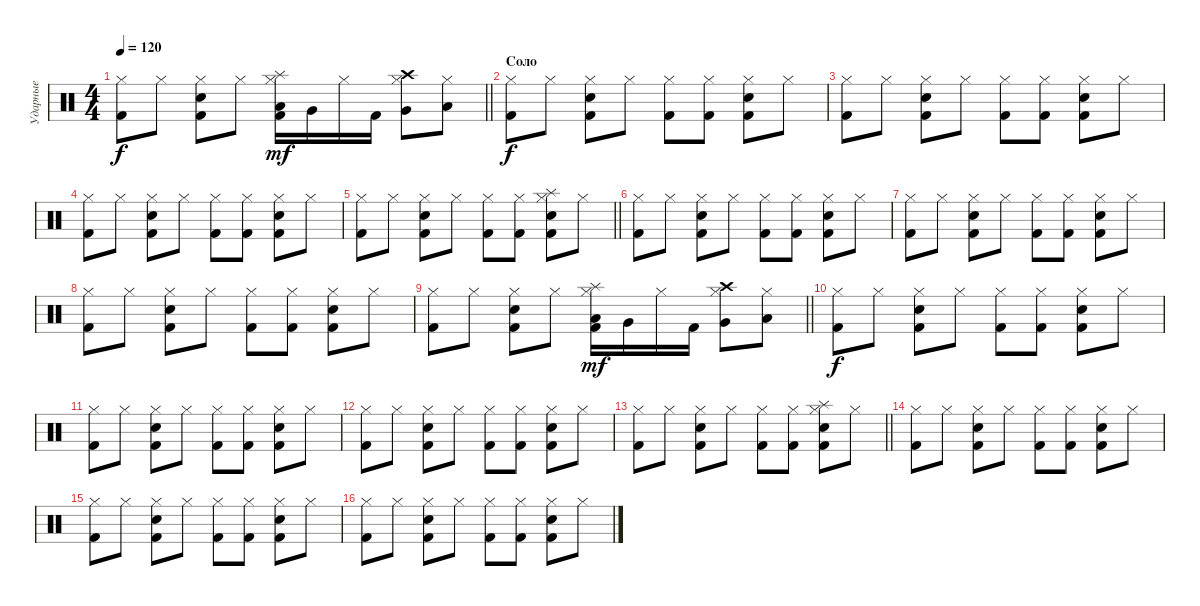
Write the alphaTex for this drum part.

\track ("Ударные" "Ударные") {instrument percussion}
\staff {score}
\articulation defaults
\ts (4 4)
\tempo 120
\clef neutral
\barLineRight lightlight
\ks c
("Hi-Hat (closed)" "Kick (hit) 2").8{dy f} "Hi-Hat (closed)".8 ("Hi-Hat (closed)" "Kick (hit) 2" "Electric Snare (hit)").8 "Hi-Hat (closed)".8 ("Low Tom (hit)" "Hi-Hat (closed)" "Kick (hit) 2" "Splash (hit)").16{dy mf} "Very Low Tom (hit)".16 "Hi-Hat (closed)".16 "Kick (hit) 2".16 ("Very Low Tom (hit)" "Hi-Hat (closed)" "Crash high (hit)").8 ("Low Floor Tom (hit)" "Hi-Hat (closed)").8 |
\section ("" "Соло")
("Hi-Hat (closed)" "Kick (hit) 2").8{dy f} "Hi-Hat (closed)".8 ("Hi-Hat (closed)" "Kick (hit) 2" "Electric Snare (hit)").8 "Hi-Hat (closed)".8 ("Hi-Hat (closed)" "Kick (hit) 2").8 ("Hi-Hat (closed)" "Kick (hit) 2").8 ("Hi-Hat (closed)" "Kick (hit) 2" "Electric Snare (hit)").8 "Hi-Hat (closed)".8 |
("Hi-Hat (closed)" "Kick (hit) 2").8 "Hi-Hat (closed)".8 ("Hi-Hat (closed)" "Kick (hit) 2" "Electric Snare (hit)").8 "Hi-Hat (closed)".8 ("Hi-Hat (closed)" "Kick (hit) 2").8 ("Hi-Hat (closed)" "Kick (hit) 2").8 ("Hi-Hat (closed)" "Kick (hit) 2" "Electric Snare (hit)").8 "Hi-Hat (closed)".8 |
("Hi-Hat (closed)" "Kick (hit) 2").8 "Hi-Hat (closed)".8 ("Hi-Hat (closed)" "Kick (hit) 2" "Electric Snare (hit)").8 "Hi-Hat (closed)".8 ("Hi-Hat (closed)" "Kick (hit) 2").8 ("Hi-Hat (closed)" "Kick (hit) 2").8 ("Hi-Hat (closed)" "Kick (hit) 2" "Electric Snare (hit)").8 "Hi-Hat (closed)".8 |
\barLineRight lightlight
("Hi-Hat (closed)" "Kick (hit) 2").8 "Hi-Hat (closed)".8 ("Hi-Hat (closed)" "Kick (hit) 2" "Electric Snare (hit)").8 "Hi-Hat (closed)".8 ("Hi-Hat (closed)" "Kick (hit) 2").8 ("Hi-Hat (closed)" "Kick (hit) 2").8 ("Hi-Hat (closed)" "Kick (hit) 2" "Electric Snare (hit)" "Splash (hit)").8 "Hi-Hat (closed)".8 |
("Hi-Hat (closed)" "Kick (hit) 2").8 "Hi-Hat (closed)".8 ("Hi-Hat (closed)" "Kick (hit) 2" "Electric Snare (hit)").8 "Hi-Hat (closed)".8 ("Hi-Hat (closed)" "Kick (hit) 2").8 ("Hi-Hat (closed)" "Kick (hit) 2").8 ("Hi-Hat (closed)" "Kick (hit) 2" "Electric Snare (hit)").8 "Hi-Hat (closed)".8 |
("Hi-Hat (closed)" "Kick (hit) 2").8 "Hi-Hat (closed)".8 ("Hi-Hat (closed)" "Kick (hit) 2" "Electric Snare (hit)").8 "Hi-Hat (closed)".8 ("Hi-Hat (closed)" "Kick (hit) 2").8 ("Hi-Hat (closed)" "Kick (hit) 2").8 ("Hi-Hat (closed)" "Kick (hit) 2" "Electric Snare (hit)").8 "Hi-Hat (closed)".8 |
("Hi-Hat (closed)" "Kick (hit) 2").8 "Hi-Hat (closed)".8 ("Hi-Hat (closed)" "Kick (hit) 2" "Electric Snare (hit)").8 "Hi-Hat (closed)".8 ("Hi-Hat (closed)" "Kick (hit) 2").8 ("Hi-Hat (closed)" "Kick (hit) 2").8 ("Hi-Hat (closed)" "Kick (hit) 2" "Electric Snare (hit)").8 "Hi-Hat (closed)".8 |
\barLineRight lightlight
("Hi-Hat (closed)" "Kick (hit) 2").8 "Hi-Hat (closed)".8 ("Hi-Hat (closed)" "Kick (hit) 2" "Electric Snare (hit)").8 "Hi-Hat (closed)".8 ("Low Tom (hit)" "Hi-Hat (closed)" "Kick (hit) 2" "Splash (hit)").16{dy mf} "Very Low Tom (hit)".16 "Hi-Hat (closed)".16 "Kick (hit) 2".16 ("Very Low Tom (hit)" "Hi-Hat (closed)" "Crash high (hit)").8 ("Low Floor Tom (hit)" "Hi-Hat (closed)").8 |
("Hi-Hat (closed)" "Kick (hit) 2").8{dy f} "Hi-Hat (closed)".8 ("Hi-Hat (closed)" "Kick (hit) 2" "Electric Snare (hit)").8 "Hi-Hat (closed)".8 ("Hi-Hat (closed)" "Kick (hit) 2").8 ("Hi-Hat (closed)" "Kick (hit) 2").8 ("Hi-Hat (closed)" "Kick (hit) 2" "Electric Snare (hit)").8 "Hi-Hat (closed)".8 |
("Hi-Hat (closed)" "Kick (hit) 2").8 "Hi-Hat (closed)".8 ("Hi-Hat (closed)" "Kick (hit) 2" "Electric Snare (hit)").8 "Hi-Hat (closed)".8 ("Hi-Hat (closed)" "Kick (hit) 2").8 ("Hi-Hat (closed)" "Kick (hit) 2").8 ("Hi-Hat (closed)" "Kick (hit) 2" "Electric Snare (hit)").8 "Hi-Hat (closed)".8 |
("Hi-Hat (closed)" "Kick (hit) 2").8 "Hi-Hat (closed)".8 ("Hi-Hat (closed)" "Kick (hit) 2" "Electric Snare (hit)").8 "Hi-Hat (closed)".8 ("Hi-Hat (closed)" "Kick (hit) 2").8 ("Hi-Hat (closed)" "Kick (hit) 2").8 ("Hi-Hat (closed)" "Kick (hit) 2" "Electric Snare (hit)").8 "Hi-Hat (closed)".8 |
\barLineRight lightlight
("Hi-Hat (closed)" "Kick (hit) 2").8 "Hi-Hat (closed)".8 ("Hi-Hat (closed)" "Kick (hit) 2" "Electric Snare (hit)").8 "Hi-Hat (closed)".8 ("Hi-Hat (closed)" "Kick (hit) 2").8 ("Hi-Hat (closed)" "Kick (hit) 2").8 ("Hi-Hat (closed)" "Kick (hit) 2" "Electric Snare (hit)" "Splash (hit)").8 "Hi-Hat (closed)".8 |
("Hi-Hat (closed)" "Kick (hit) 2").8 "Hi-Hat (closed)".8 ("Hi-Hat (closed)" "Kick (hit) 2" "Electric Snare (hit)").8 "Hi-Hat (closed)".8 ("Hi-Hat (closed)" "Kick (hit) 2").8 ("Hi-Hat (closed)" "Kick (hit) 2").8 ("Hi-Hat (closed)" "Kick (hit) 2" "Electric Snare (hit)").8 "Hi-Hat (closed)".8 |
("Hi-Hat (closed)" "Kick (hit) 2").8 "Hi-Hat (closed)".8 ("Hi-Hat (closed)" "Kick (hit) 2" "Electric Snare (hit)").8 "Hi-Hat (closed)".8 ("Hi-Hat (closed)" "Kick (hit) 2").8 ("Hi-Hat (closed)" "Kick (hit) 2").8 ("Hi-Hat (closed)" "Kick (hit) 2" "Electric Snare (hit)").8 "Hi-Hat (closed)".8 |
("Hi-Hat (closed)" "Kick (hit) 2").8 "Hi-Hat (closed)".8 ("Hi-Hat (closed)" "Kick (hit) 2" "Electric Snare (hit)").8 "Hi-Hat (closed)".8 ("Hi-Hat (closed)" "Kick (hit) 2").8 ("Hi-Hat (closed)" "Kick (hit) 2").8 ("Hi-Hat (closed)" "Kick (hit) 2" "Electric Snare (hit)").8 "Hi-Hat (closed)".8
